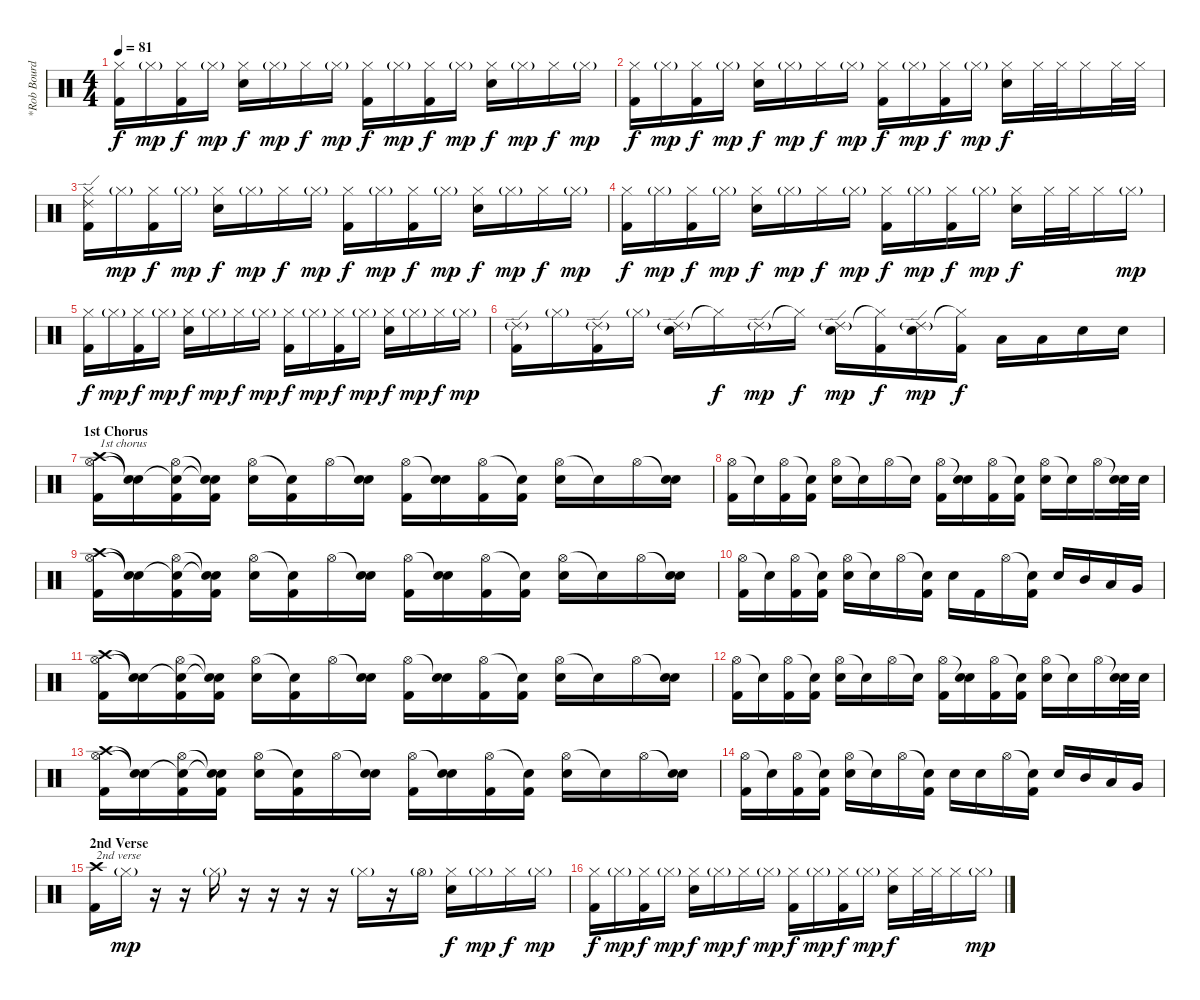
\track ("*Rob Bourdon (Drums)" "*Rob Bourd") {instrument percussion}
\staff {score}
\articulation defaults
\ts (4 4)
\tempo 81
\clef neutral
\ks c
("Hi-Hat (closed)" "Kick (hit) 2").16{dy f} "Hi-Hat (closed)"{g}.16{dy mp} ("Hi-Hat (closed)" "Kick (hit) 2").16{dy f} "Hi-Hat (closed)"{g}.16{dy mp} ("Hi-Hat (closed)" "Electric Snare (hit)").16{dy f} "Hi-Hat (closed)"{g}.16{dy mp} "Hi-Hat (closed)".16{dy f} "Hi-Hat (closed)"{g}.16{dy mp} ("Hi-Hat (closed)" "Kick (hit) 2").16{dy f} "Hi-Hat (closed)"{g}.16{dy mp} ("Hi-Hat (closed)" "Kick (hit) 2").16{dy f} "Hi-Hat (closed)"{g}.16{dy mp} ("Hi-Hat (closed)" "Electric Snare (hit)").16{dy f} "Hi-Hat (closed)"{g}.16{dy mp} "Hi-Hat (closed)".16{dy f} "Hi-Hat (closed)"{g}.16{dy mp} |
("Hi-Hat (closed)" "Kick (hit) 2").16{dy f} "Hi-Hat (closed)"{g}.16{dy mp} ("Hi-Hat (closed)" "Kick (hit) 2").16{dy f} "Hi-Hat (closed)"{g}.16{dy mp} ("Hi-Hat (closed)" "Electric Snare (hit)").16{dy f} "Hi-Hat (closed)"{g}.16{dy mp} "Hi-Hat (closed)".16{dy f} "Hi-Hat (closed)"{g}.16{dy mp} ("Hi-Hat (closed)" "Kick (hit) 2").16{dy f} "Hi-Hat (closed)"{g}.16{dy mp} ("Hi-Hat (closed)" "Kick (hit) 2").16{dy f} "Hi-Hat (closed)"{g}.16{dy mp} ("Hi-Hat (closed)" "Electric Snare (hit)").16{dy f} "Hi-Hat (closed)".32 "Hi-Hat (closed)".32 "Hi-Hat (closed)".16 "Hi-Hat (closed)".32 "Hi-Hat (closed)".32 |
("Ride (edge) 2" "Hi-Hat (closed)" "Kick (hit) 2").16 "Hi-Hat (closed)"{g}.16{dy mp} ("Hi-Hat (closed)" "Kick (hit) 2").16{dy f} "Hi-Hat (closed)"{g}.16{dy mp} ("Hi-Hat (closed)" "Electric Snare (hit)").16{dy f} "Hi-Hat (closed)"{g}.16{dy mp} "Hi-Hat (closed)".16{dy f} "Hi-Hat (closed)"{g}.16{dy mp} ("Hi-Hat (closed)" "Kick (hit) 2").16{dy f} "Hi-Hat (closed)"{g}.16{dy mp} ("Hi-Hat (closed)" "Kick (hit) 2").16{dy f} "Hi-Hat (closed)"{g}.16{dy mp} ("Hi-Hat (closed)" "Electric Snare (hit)").16{dy f} "Hi-Hat (closed)"{g}.16{dy mp} "Hi-Hat (closed)".16{dy f} "Hi-Hat (closed)"{g}.16{dy mp} |
("Hi-Hat (closed)" "Kick (hit) 2").16{dy f} "Hi-Hat (closed)"{g}.16{dy mp} ("Hi-Hat (closed)" "Kick (hit) 2").16{dy f} "Hi-Hat (closed)"{g}.16{dy mp} ("Hi-Hat (closed)" "Electric Snare (hit)").16{dy f} "Hi-Hat (closed)"{g}.16{dy mp} "Hi-Hat (closed)".16{dy f} "Hi-Hat (closed)"{g}.16{dy mp} ("Hi-Hat (closed)" "Kick (hit) 2").16{dy f} "Hi-Hat (closed)"{g}.16{dy mp} ("Hi-Hat (closed)" "Kick (hit) 2").16{dy f} "Hi-Hat (closed)"{g}.16{dy mp} ("Hi-Hat (closed)" "Electric Snare (hit)").16{dy f} "Hi-Hat (closed)".32 "Hi-Hat (closed)".32 "Hi-Hat (closed)".16 "Hi-Hat (closed)"{g}.16{dy mp} |
("Hi-Hat (closed)" "Kick (hit) 2").16{dy f} "Hi-Hat (closed)"{g}.16{dy mp} ("Hi-Hat (closed)" "Kick (hit) 2").16{dy f} "Hi-Hat (closed)"{g}.16{dy mp} ("Hi-Hat (closed)" "Electric Snare (hit)").16{dy f} "Hi-Hat (closed)"{g}.16{dy mp} "Hi-Hat (closed)".16{dy f} "Hi-Hat (closed)"{g}.16{dy mp} ("Hi-Hat (closed)" "Kick (hit) 2").16{dy f} "Hi-Hat (closed)"{g}.16{dy mp} ("Hi-Hat (closed)" "Kick (hit) 2").16{dy f} "Hi-Hat (closed)"{g}.16{dy mp} ("Hi-Hat (closed)" "Electric Snare (hit)").16{dy f} "Hi-Hat (closed)"{g}.16{dy mp} "Hi-Hat (closed)".16{dy f} "Hi-Hat (closed)"{g}.16{dy mp} |
("Ride (edge) 2"{g} "Kick (hit) 2").16 "Hi-Hat (closed)"{g}.16 ("Ride (edge) 2"{g} "Kick (hit) 2").16 "Hi-Hat (closed)"{g}.16 ("Ride (edge) 2"{g} "Electric Snare (hit)").16 "Hi-Hat (closed)"{t}.16{dy f} "Ride (edge) 2"{g}.16{dy mp} "Hi-Hat (closed)"{t}.16{dy f} ("Ride (edge) 2"{g} "Electric Snare (hit)").16{dy mp} ("Hi-Hat (closed)"{t} "Kick (hit) 2").16{dy f} ("Ride (edge) 2"{g} "Electric Snare (hit)").16{dy mp} ("Hi-Hat (closed)"{t} "Kick (hit) 2").16{dy f} "Low Tom (hit)".16 "Low Tom (hit)".16 "Electric Snare (hit)".16 "Electric Snare (hit)".16 |
\section ("" "1st Chorus")
("Crash high (hit)" "Hi-Hat (open)" "Kick (hit) 2").16{txt "1st chorus"} ("Snare (hit)"{t} "Snare (hit)"{t}).16 ("Snare (hit)"{t} "Hi-Hat (open)" "Kick (hit) 2").16 ("Snare (hit)"{t} "Snare (hit)"{t} "Kick (hit) 2").16 ("Hi-Hat (open)" "Electric Snare (hit)").16 ("Snare (hit)"{t} "Kick (hit) 2").16 "Hi-Hat (open)".16 ("Snare (hit)"{t} "Electric Snare (hit)").16 ("Hi-Hat (open)" "Kick (hit) 2").16 ("Snare (hit)"{t} "Electric Snare (hit)").16 ("Hi-Hat (open)" "Kick (hit) 2").16 ("Snare (hit)"{t} "Kick (hit) 2").16 ("Hi-Hat (open)" "Electric Snare (hit)").16 "Snare (hit)"{t}.16 "Hi-Hat (open)".16 ("Snare (hit)"{t} "Electric Snare (hit)").16 |
("Hi-Hat (open)" "Kick (hit) 2").16 "Snare (hit)"{t}.16 ("Hi-Hat (open)" "Kick (hit) 2").16 ("Snare (hit)"{t} "Kick (hit) 2").16 ("Hi-Hat (open)" "Electric Snare (hit)").16 "Snare (hit)"{t}.16 "Hi-Hat (open)".16 "Snare (hit)"{t}.16 ("Hi-Hat (open)" "Kick (hit) 2").16 ("Snare (hit)"{t} "Electric Snare (hit)").16 ("Hi-Hat (open)" "Kick (hit) 2").16 ("Snare (hit)"{t} "Kick (hit) 2").16 ("Hi-Hat (open)" "Electric Snare (hit)").16 "Snare (hit)"{t}.16 "Hi-Hat (open)".16 ("Snare (hit)"{t} "Electric Snare (hit)").32 "Electric Snare (hit)".32 |
("Crash high (hit)" "Hi-Hat (open)" "Kick (hit) 2").16 ("Snare (hit)"{t} "Snare (hit)"{t}).16 ("Snare (hit)"{t} "Hi-Hat (open)" "Kick (hit) 2").16 ("Snare (hit)"{t} "Snare (hit)"{t} "Kick (hit) 2").16 ("Hi-Hat (open)" "Electric Snare (hit)").16 ("Snare (hit)"{t} "Kick (hit) 2").16 "Hi-Hat (open)".16 ("Snare (hit)"{t} "Electric Snare (hit)").16 ("Hi-Hat (open)" "Kick (hit) 2").16 ("Snare (hit)"{t} "Electric Snare (hit)").16 ("Hi-Hat (open)" "Kick (hit) 2").16 ("Snare (hit)"{t} "Kick (hit) 2").16 ("Hi-Hat (open)" "Electric Snare (hit)").16 "Snare (hit)"{t}.16 "Hi-Hat (open)".16 ("Snare (hit)"{t} "Electric Snare (hit)").16 |
("Hi-Hat (open)" "Kick (hit) 2").16 "Snare (hit)"{t}.16 ("Hi-Hat (open)" "Kick (hit) 2").16 ("Snare (hit)"{t} "Kick (hit) 2").16 ("Hi-Hat (open)" "Electric Snare (hit)").16 "Snare (hit)"{t}.16 "Hi-Hat (open)".16 ("Snare (hit)"{t} "Kick (hit) 2").16 "Electric Snare (hit)".16 "Kick (hit) 2".16 "Hi-Hat (open)".16 ("Snare (hit)"{t} "Kick (hit) 2").16 "Electric Snare (hit)".16 "Mid Tom (hit)".16 "Low Tom (hit)".16 "Very Low Tom (hit)".16 |
("Crash high (hit)" "Hi-Hat (open)" "Kick (hit) 2").16 ("Snare (hit)"{t} "Snare (hit)"{t}).16 ("Snare (hit)"{t} "Hi-Hat (open)" "Kick (hit) 2").16 ("Snare (hit)"{t} "Snare (hit)"{t} "Kick (hit) 2").16 ("Hi-Hat (open)" "Electric Snare (hit)").16 ("Snare (hit)"{t} "Kick (hit) 2").16 "Hi-Hat (open)".16 ("Snare (hit)"{t} "Electric Snare (hit)").16 ("Hi-Hat (open)" "Kick (hit) 2").16 ("Snare (hit)"{t} "Electric Snare (hit)").16 ("Hi-Hat (open)" "Kick (hit) 2").16 ("Snare (hit)"{t} "Kick (hit) 2").16 ("Hi-Hat (open)" "Electric Snare (hit)").16 "Snare (hit)"{t}.16 "Hi-Hat (open)".16 ("Snare (hit)"{t} "Electric Snare (hit)").16 |
("Hi-Hat (open)" "Kick (hit) 2").16 "Snare (hit)"{t}.16 ("Hi-Hat (open)" "Kick (hit) 2").16 ("Snare (hit)"{t} "Kick (hit) 2").16 ("Hi-Hat (open)" "Electric Snare (hit)").16 "Snare (hit)"{t}.16 "Hi-Hat (open)".16 "Snare (hit)"{t}.16 ("Hi-Hat (open)" "Kick (hit) 2").16 ("Snare (hit)"{t} "Electric Snare (hit)").16 ("Hi-Hat (open)" "Kick (hit) 2").16 ("Snare (hit)"{t} "Kick (hit) 2").16 ("Hi-Hat (open)" "Electric Snare (hit)").16 "Snare (hit)"{t}.16 "Hi-Hat (open)".16 ("Snare (hit)"{t} "Electric Snare (hit)").32 "Electric Snare (hit)".32 |
("Crash high (hit)" "Hi-Hat (open)" "Kick (hit) 2").16 ("Snare (hit)"{t} "Snare (hit)"{t}).16 ("Snare (hit)"{t} "Hi-Hat (open)" "Kick (hit) 2").16 ("Snare (hit)"{t} "Snare (hit)"{t} "Kick (hit) 2").16 ("Hi-Hat (open)" "Electric Snare (hit)").16 ("Snare (hit)"{t} "Kick (hit) 2").16 "Hi-Hat (open)".16 ("Snare (hit)"{t} "Electric Snare (hit)").16 ("Hi-Hat (open)" "Kick (hit) 2").16 ("Snare (hit)"{t} "Electric Snare (hit)").16 ("Hi-Hat (open)" "Kick (hit) 2").16 ("Snare (hit)"{t} "Kick (hit) 2").16 ("Hi-Hat (open)" "Electric Snare (hit)").16 "Snare (hit)"{t}.16 "Hi-Hat (open)".16 ("Snare (hit)"{t} "Electric Snare (hit)").16 |
("Hi-Hat (open)" "Kick (hit) 2").16 "Snare (hit)"{t}.16 ("Hi-Hat (open)" "Kick (hit) 2").16 ("Snare (hit)"{t} "Kick (hit) 2").16 ("Hi-Hat (open)" "Electric Snare (hit)").16 "Snare (hit)"{t}.16 "Hi-Hat (open)".16 ("Snare (hit)"{t} "Kick (hit) 2").16 "Electric Snare (hit)".16 "Electric Snare (hit)".16 "Hi-Hat (open)".16 ("Snare (hit)"{t} "Kick (hit) 2").16 "Electric Snare (hit)".16 "Mid Tom (hit)".16 "Low Tom (hit)".16 "Very Low Tom (hit)".16 |
\section ("" "2nd Verse")
("Crash high (hit)" "Kick (hit) 2").16{txt "2nd verse"} "Hi-Hat (closed)"{g}.16{dy mp} r.16 r.16 "Hi-Hat (closed)"{g}.16 r.16 r.16 r.16 r.16 "Hi-Hat (closed)"{g}.16 r.16 "Hi-Hat (open)"{g}.16 ("Hi-Hat (closed)" "Electric Snare (hit)").16{dy f} "Hi-Hat (closed)"{g}.16{dy mp} "Hi-Hat (closed)".16{dy f} "Hi-Hat (closed)"{g}.16{dy mp} |
("Hi-Hat (closed)" "Kick (hit) 2").16{dy f} "Hi-Hat (closed)"{g}.16{dy mp} ("Hi-Hat (closed)" "Kick (hit) 2").16{dy f} "Hi-Hat (closed)"{g}.16{dy mp} ("Hi-Hat (closed)" "Electric Snare (hit)").16{dy f} "Hi-Hat (closed)"{g}.16{dy mp} "Hi-Hat (closed)".16{dy f} "Hi-Hat (closed)"{g}.16{dy mp} ("Hi-Hat (closed)" "Kick (hit) 2").16{dy f} "Hi-Hat (closed)"{g}.16{dy mp} ("Hi-Hat (closed)" "Kick (hit) 2").16{dy f} "Hi-Hat (closed)"{g}.16{dy mp} ("Hi-Hat (closed)" "Electric Snare (hit)").16{dy f} "Hi-Hat (closed)".32 "Hi-Hat (closed)".32 "Hi-Hat (closed)".16 "Hi-Hat (closed)"{g}.16{dy mp}
